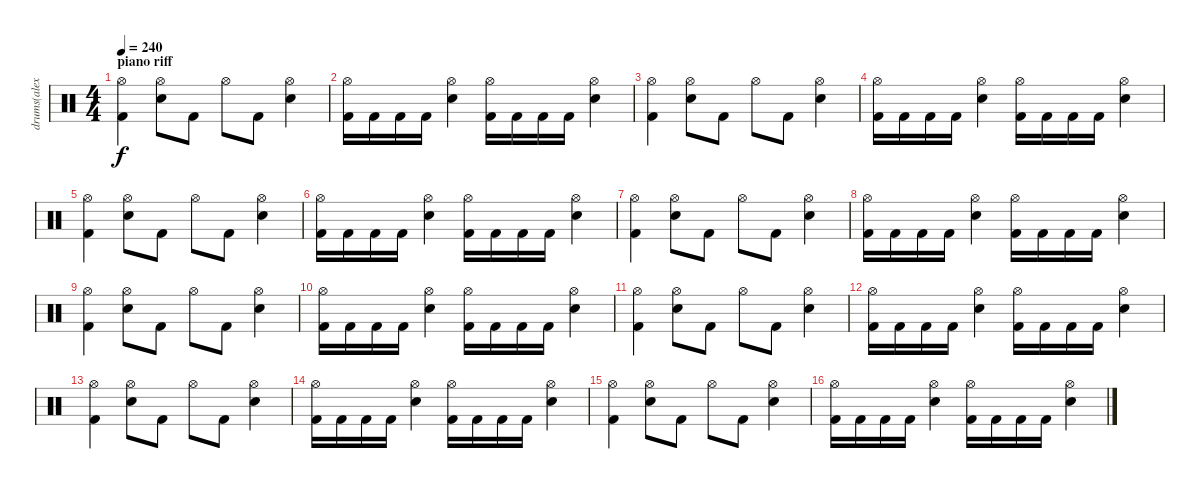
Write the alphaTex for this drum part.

\track ("drums(alex holzshwart)" "drums(alex") {instrument percussion}
\staff {score}
\articulation defaults
\ts (4 4)
\section ("" "piano riff")
\tempo 240
\clef neutral
\ks c
("Hi-Hat (open)" "Kick (hit) 2").4{dy f} ("Hi-Hat (open)" "Electric Snare (hit)").8 "Kick (hit) 2".8 "Hi-Hat (open)".8 "Kick (hit) 2".8 ("Hi-Hat (open)" "Electric Snare (hit)").4 |
("Hi-Hat (open)" "Kick (hit) 2").16 "Kick (hit) 2".16 "Kick (hit) 2".16 "Kick (hit) 2".16 ("Hi-Hat (open)" "Electric Snare (hit)").4 ("Hi-Hat (open)" "Kick (hit) 2").16 "Kick (hit) 2".16 "Kick (hit) 2".16 "Kick (hit) 2".16 ("Hi-Hat (open)" "Electric Snare (hit)").4 |
("Hi-Hat (open)" "Kick (hit) 2").4 ("Hi-Hat (open)" "Electric Snare (hit)").8 "Kick (hit) 2".8 "Hi-Hat (open)".8 "Kick (hit) 2".8 ("Hi-Hat (open)" "Electric Snare (hit)").4 |
("Hi-Hat (open)" "Kick (hit) 2").16 "Kick (hit) 2".16 "Kick (hit) 2".16 "Kick (hit) 2".16 ("Hi-Hat (open)" "Electric Snare (hit)").4 ("Hi-Hat (open)" "Kick (hit) 2").16 "Kick (hit) 2".16 "Kick (hit) 2".16 "Kick (hit) 2".16 ("Hi-Hat (open)" "Electric Snare (hit)").4 |
("Hi-Hat (open)" "Kick (hit) 2").4 ("Hi-Hat (open)" "Electric Snare (hit)").8 "Kick (hit) 2".8 "Hi-Hat (open)".8 "Kick (hit) 2".8 ("Hi-Hat (open)" "Electric Snare (hit)").4 |
("Hi-Hat (open)" "Kick (hit) 2").16 "Kick (hit) 2".16 "Kick (hit) 2".16 "Kick (hit) 2".16 ("Hi-Hat (open)" "Electric Snare (hit)").4 ("Hi-Hat (open)" "Kick (hit) 2").16 "Kick (hit) 2".16 "Kick (hit) 2".16 "Kick (hit) 2".16 ("Hi-Hat (open)" "Electric Snare (hit)").4 |
("Hi-Hat (open)" "Kick (hit) 2").4 ("Hi-Hat (open)" "Electric Snare (hit)").8 "Kick (hit) 2".8 "Hi-Hat (open)".8 "Kick (hit) 2".8 ("Hi-Hat (open)" "Electric Snare (hit)").4 |
("Hi-Hat (open)" "Kick (hit) 2").16 "Kick (hit) 2".16 "Kick (hit) 2".16 "Kick (hit) 2".16 ("Hi-Hat (open)" "Electric Snare (hit)").4 ("Hi-Hat (open)" "Kick (hit) 2").16 "Kick (hit) 2".16 "Kick (hit) 2".16 "Kick (hit) 2".16 ("Hi-Hat (open)" "Electric Snare (hit)").4 |
("Hi-Hat (open)" "Kick (hit) 2").4 ("Hi-Hat (open)" "Electric Snare (hit)").8 "Kick (hit) 2".8 "Hi-Hat (open)".8 "Kick (hit) 2".8 ("Hi-Hat (open)" "Electric Snare (hit)").4 |
("Hi-Hat (open)" "Kick (hit) 2").16 "Kick (hit) 2".16 "Kick (hit) 2".16 "Kick (hit) 2".16 ("Hi-Hat (open)" "Electric Snare (hit)").4 ("Hi-Hat (open)" "Kick (hit) 2").16 "Kick (hit) 2".16 "Kick (hit) 2".16 "Kick (hit) 2".16 ("Hi-Hat (open)" "Electric Snare (hit)").4 |
("Hi-Hat (open)" "Kick (hit) 2").4 ("Hi-Hat (open)" "Electric Snare (hit)").8 "Kick (hit) 2".8 "Hi-Hat (open)".8 "Kick (hit) 2".8 ("Hi-Hat (open)" "Electric Snare (hit)").4 |
("Hi-Hat (open)" "Kick (hit) 2").16 "Kick (hit) 2".16 "Kick (hit) 2".16 "Kick (hit) 2".16 ("Hi-Hat (open)" "Electric Snare (hit)").4 ("Hi-Hat (open)" "Kick (hit) 2").16 "Kick (hit) 2".16 "Kick (hit) 2".16 "Kick (hit) 2".16 ("Hi-Hat (open)" "Electric Snare (hit)").4 |
("Hi-Hat (open)" "Kick (hit) 2").4 ("Hi-Hat (open)" "Electric Snare (hit)").8 "Kick (hit) 2".8 "Hi-Hat (open)".8 "Kick (hit) 2".8 ("Hi-Hat (open)" "Electric Snare (hit)").4 |
("Hi-Hat (open)" "Kick (hit) 2").16 "Kick (hit) 2".16 "Kick (hit) 2".16 "Kick (hit) 2".16 ("Hi-Hat (open)" "Electric Snare (hit)").4 ("Hi-Hat (open)" "Kick (hit) 2").16 "Kick (hit) 2".16 "Kick (hit) 2".16 "Kick (hit) 2".16 ("Hi-Hat (open)" "Electric Snare (hit)").4 |
("Hi-Hat (open)" "Kick (hit) 2").4 ("Hi-Hat (open)" "Electric Snare (hit)").8 "Kick (hit) 2".8 "Hi-Hat (open)".8 "Kick (hit) 2".8 ("Hi-Hat (open)" "Electric Snare (hit)").4 |
("Hi-Hat (open)" "Kick (hit) 2").16 "Kick (hit) 2".16 "Kick (hit) 2".16 "Kick (hit) 2".16 ("Hi-Hat (open)" "Electric Snare (hit)").4 ("Hi-Hat (open)" "Kick (hit) 2").16 "Kick (hit) 2".16 "Kick (hit) 2".16 "Kick (hit) 2".16 ("Hi-Hat (open)" "Electric Snare (hit)").4
